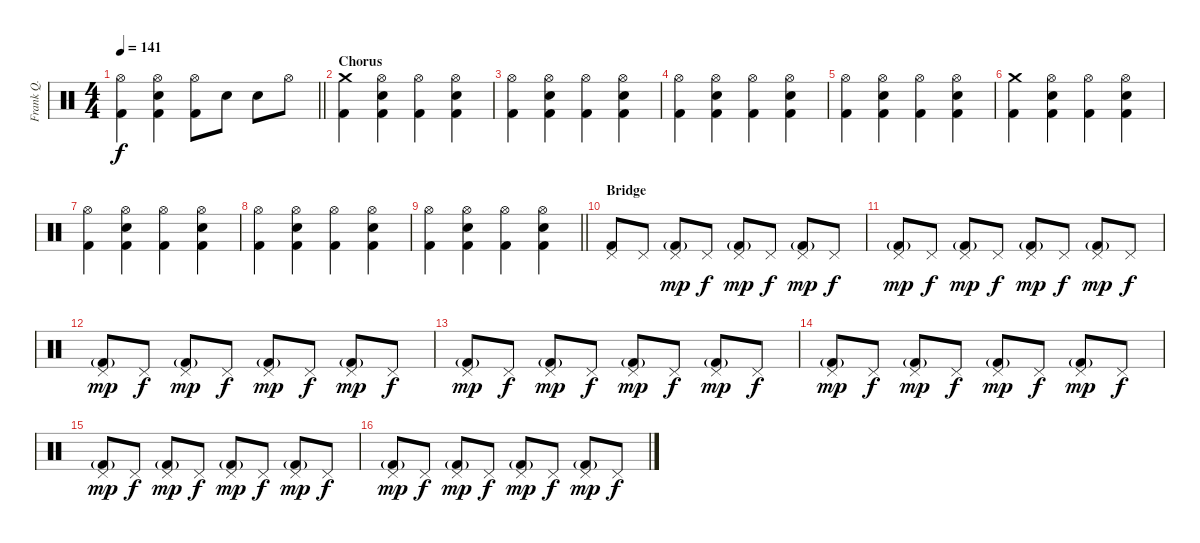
\track ("Frank Q." "Frank Q.") {instrument percussion}
\staff {score}
\articulation defaults
\ts (4 4)
\tempo 141
\clef neutral
\barLineRight lightlight
\ks c
("Hi-Hat (open)" "Kick (hit) 2").4{dy f} ("Hi-Hat (open)" "Electric Snare (hit)" "Kick (hit) 2").4 ("Hi-Hat (open)" "Kick (hit) 2").8 "Electric Snare (hit)".8 "Electric Snare (hit)".8 "Hi-Hat (open)".8 |
\section ("" "Chorus")
("Crash medium (hit)" "Kick (hit) 2").4 ("Hi-Hat (open)" "Electric Snare (hit)" "Kick (hit) 2").4 ("Hi-Hat (open)" "Kick (hit) 2").4 ("Hi-Hat (open)" "Electric Snare (hit)" "Kick (hit) 2").4 |
("Hi-Hat (open)" "Kick (hit) 2").4 ("Hi-Hat (open)" "Electric Snare (hit)" "Kick (hit) 2").4 ("Hi-Hat (open)" "Kick (hit) 2").4 ("Hi-Hat (open)" "Electric Snare (hit)" "Kick (hit) 2").4 |
("Hi-Hat (open)" "Kick (hit) 2").4 ("Hi-Hat (open)" "Electric Snare (hit)" "Kick (hit) 2").4 ("Hi-Hat (open)" "Kick (hit) 2").4 ("Hi-Hat (open)" "Electric Snare (hit)" "Kick (hit) 2").4 |
("Hi-Hat (open)" "Kick (hit) 2").4 ("Hi-Hat (open)" "Electric Snare (hit)" "Kick (hit) 2").4 ("Hi-Hat (open)" "Kick (hit) 2").4 ("Hi-Hat (open)" "Electric Snare (hit)" "Kick (hit) 2").4 |
("Crash medium (hit)" "Kick (hit) 2").4 ("Hi-Hat (open)" "Electric Snare (hit)" "Kick (hit) 2").4 ("Hi-Hat (open)" "Kick (hit) 2").4 ("Hi-Hat (open)" "Electric Snare (hit)" "Kick (hit) 2").4 |
("Hi-Hat (open)" "Kick (hit) 2").4 ("Hi-Hat (open)" "Electric Snare (hit)" "Kick (hit) 2").4 ("Hi-Hat (open)" "Kick (hit) 2").4 ("Hi-Hat (open)" "Electric Snare (hit)" "Kick (hit) 2").4 |
("Hi-Hat (open)" "Kick (hit) 2").4 ("Hi-Hat (open)" "Electric Snare (hit)" "Kick (hit) 2").4 ("Hi-Hat (open)" "Kick (hit) 2").4 ("Hi-Hat (open)" "Electric Snare (hit)" "Kick (hit) 2").4 |
\barLineRight lightlight
("Hi-Hat (open)" "Kick (hit) 2").4 ("Hi-Hat (open)" "Electric Snare (hit)" "Kick (hit) 2").4 ("Hi-Hat (open)" "Kick (hit) 2").4 ("Hi-Hat (open)" "Electric Snare (hit)" "Kick (hit) 2").4 |
\section ("" "Bridge")
("Pedal Hi-Hat (hit)" "Kick (hit) 2").8 "Pedal Hi-Hat (hit)".8 ("Pedal Hi-Hat (hit)" "Kick (hit) 2"{g}).8{dy mp} "Pedal Hi-Hat (hit)".8{dy f} ("Pedal Hi-Hat (hit)" "Kick (hit) 2"{g}).8{dy mp} "Pedal Hi-Hat (hit)".8{dy f} ("Pedal Hi-Hat (hit)" "Kick (hit) 2"{g}).8{dy mp} "Pedal Hi-Hat (hit)".8{dy f} |
("Pedal Hi-Hat (hit)" "Kick (hit) 2"{g}).8{dy mp} "Pedal Hi-Hat (hit)".8{dy f} ("Pedal Hi-Hat (hit)" "Kick (hit) 2"{g}).8{dy mp} "Pedal Hi-Hat (hit)".8{dy f} ("Pedal Hi-Hat (hit)" "Kick (hit) 2"{g}).8{dy mp} "Pedal Hi-Hat (hit)".8{dy f} ("Pedal Hi-Hat (hit)" "Kick (hit) 2"{g}).8{dy mp} "Pedal Hi-Hat (hit)".8{dy f} |
("Pedal Hi-Hat (hit)" "Kick (hit) 2"{g}).8{dy mp} "Pedal Hi-Hat (hit)".8{dy f} ("Pedal Hi-Hat (hit)" "Kick (hit) 2"{g}).8{dy mp} "Pedal Hi-Hat (hit)".8{dy f} ("Pedal Hi-Hat (hit)" "Kick (hit) 2"{g}).8{dy mp} "Pedal Hi-Hat (hit)".8{dy f} ("Pedal Hi-Hat (hit)" "Kick (hit) 2"{g}).8{dy mp} "Pedal Hi-Hat (hit)".8{dy f} |
("Pedal Hi-Hat (hit)" "Kick (hit) 2"{g}).8{dy mp} "Pedal Hi-Hat (hit)".8{dy f} ("Pedal Hi-Hat (hit)" "Kick (hit) 2"{g}).8{dy mp} "Pedal Hi-Hat (hit)".8{dy f} ("Pedal Hi-Hat (hit)" "Kick (hit) 2"{g}).8{dy mp} "Pedal Hi-Hat (hit)".8{dy f} ("Pedal Hi-Hat (hit)" "Kick (hit) 2"{g}).8{dy mp} "Pedal Hi-Hat (hit)".8{dy f} |
("Pedal Hi-Hat (hit)" "Kick (hit) 2"{g}).8{dy mp} "Pedal Hi-Hat (hit)".8{dy f} ("Pedal Hi-Hat (hit)" "Kick (hit) 2"{g}).8{dy mp} "Pedal Hi-Hat (hit)".8{dy f} ("Pedal Hi-Hat (hit)" "Kick (hit) 2"{g}).8{dy mp} "Pedal Hi-Hat (hit)".8{dy f} ("Pedal Hi-Hat (hit)" "Kick (hit) 2"{g}).8{dy mp} "Pedal Hi-Hat (hit)".8{dy f} |
("Pedal Hi-Hat (hit)" "Kick (hit) 2"{g}).8{dy mp} "Pedal Hi-Hat (hit)".8{dy f} ("Pedal Hi-Hat (hit)" "Kick (hit) 2"{g}).8{dy mp} "Pedal Hi-Hat (hit)".8{dy f} ("Pedal Hi-Hat (hit)" "Kick (hit) 2"{g}).8{dy mp} "Pedal Hi-Hat (hit)".8{dy f} ("Pedal Hi-Hat (hit)" "Kick (hit) 2"{g}).8{dy mp} "Pedal Hi-Hat (hit)".8{dy f} |
("Pedal Hi-Hat (hit)" "Kick (hit) 2"{g}).8{dy mp} "Pedal Hi-Hat (hit)".8{dy f} ("Pedal Hi-Hat (hit)" "Kick (hit) 2"{g}).8{dy mp} "Pedal Hi-Hat (hit)".8{dy f} ("Pedal Hi-Hat (hit)" "Kick (hit) 2"{g}).8{dy mp} "Pedal Hi-Hat (hit)".8{dy f} ("Pedal Hi-Hat (hit)" "Kick (hit) 2"{g}).8{dy mp} "Pedal Hi-Hat (hit)".8{dy f}
